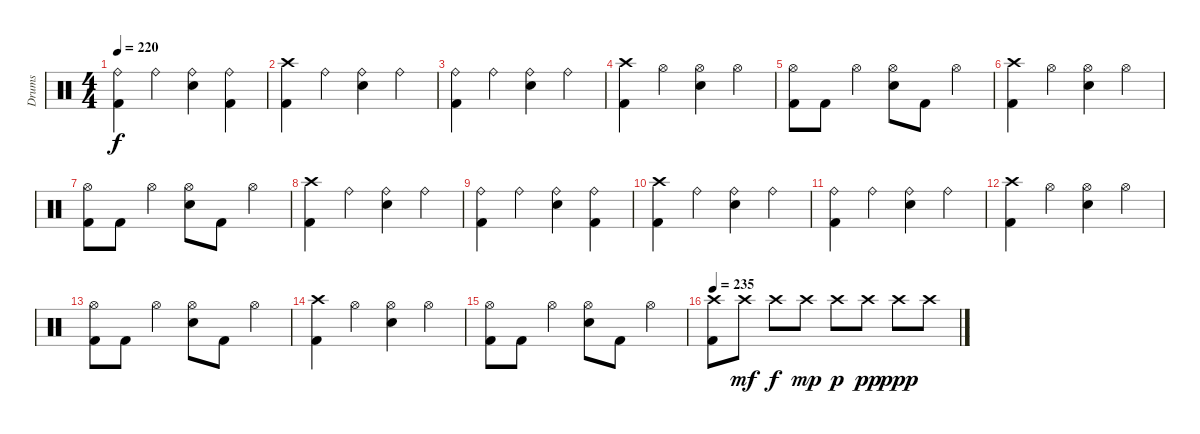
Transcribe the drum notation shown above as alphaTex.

\track ("Drums" "Drums") {instrument percussion}
\staff {score}
\articulation defaults
\ts (4 4)
\tempo 220
\clef neutral
\ks c
("Ride (bell)" "Kick (hit) 2").4{dy f} "Ride (bell)".4 ("Ride (bell)" "Snare (hit) 2").4 ("Ride (bell)" "Kick (hit) 2").4 |
("Crash high (hit)" "Kick (hit) 2").4 "Ride (bell)".4 ("Ride (bell)" "Snare (hit) 2").4 "Ride (bell)".4 |
("Ride (bell)" "Kick (hit) 2").4 "Ride (bell)".4 ("Ride (bell)" "Snare (hit) 2").4 "Ride (bell)".4 |
("Crash high (hit)" "Kick (hit) 2").4 "Hi-Hat (open)".4 ("Hi-Hat (open)" "Snare (hit) 2").4 "Hi-Hat (open)".4 |
("Hi-Hat (open)" "Kick (hit) 2").8 "Kick (hit) 2".8 "Hi-Hat (open)".4 ("Hi-Hat (open)" "Snare (hit) 2").8 "Kick (hit) 2".8 "Hi-Hat (open)".4 |
("Crash high (hit)" "Kick (hit) 2").4 "Hi-Hat (open)".4 ("Hi-Hat (open)" "Snare (hit) 2").4 "Hi-Hat (open)".4 |
("Hi-Hat (open)" "Kick (hit) 2").8 "Kick (hit) 2".8 "Hi-Hat (open)".4 ("Hi-Hat (open)" "Snare (hit) 2").8 "Kick (hit) 2".8 "Hi-Hat (open)".4 |
("Crash high (hit)" "Kick (hit) 2").4 "Ride (bell)".4 ("Ride (bell)" "Snare (hit) 2").4 "Ride (bell)".4 |
("Ride (bell)" "Kick (hit) 2").4 "Ride (bell)".4 ("Ride (bell)" "Snare (hit) 2").4 ("Ride (bell)" "Kick (hit) 2").4 |
("Crash high (hit)" "Kick (hit) 2").4 "Ride (bell)".4 ("Ride (bell)" "Snare (hit) 2").4 "Ride (bell)".4 |
("Ride (bell)" "Kick (hit) 2").4 "Ride (bell)".4 ("Ride (bell)" "Snare (hit) 2").4 "Ride (bell)".4 |
("Crash high (hit)" "Kick (hit) 2").4 "Hi-Hat (open)".4 ("Hi-Hat (open)" "Snare (hit) 2").4 "Hi-Hat (open)".4 |
("Hi-Hat (open)" "Kick (hit) 2").8 "Kick (hit) 2".8 "Hi-Hat (open)".4 ("Hi-Hat (open)" "Snare (hit) 2").8 "Kick (hit) 2".8 "Hi-Hat (open)".4 |
("Crash high (hit)" "Kick (hit) 2").4 "Hi-Hat (open)".4 ("Hi-Hat (open)" "Snare (hit) 2").4 "Hi-Hat (open)".4 |
("Hi-Hat (open)" "Kick (hit) 2").8 "Kick (hit) 2".8 "Hi-Hat (open)".4 ("Hi-Hat (open)" "Snare (hit) 2").8 "Kick (hit) 2".8 "Hi-Hat (open)".4 |
\tempo 235
("Crash high (hit)" "Kick (hit) 2").8 "Crash high (hit)".8{dy mf} "Crash high (hit)".8{dy f} "Crash high (hit)".8{dy mp} "Crash high (hit)".8{dy p} "Crash high (hit)".8{dy pp} "Crash high (hit)".8{dy ppp} "Crash high (hit)".8
